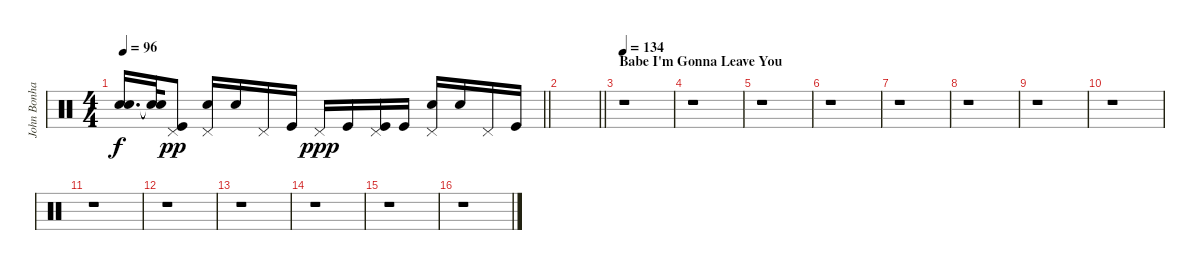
\track ("John Bonham - Drums" "John Bonha") {instrument percussion}
\staff {score}
\articulation defaults
\ts (4 4)
\tempo 96
\clef neutral
\barLineRight lightlight
\ks c
("Snare (hit)"{t} "Snare (hit)"{t}).16{d dy f} ("Snare (hit)"{t} "Snare (hit)"{t}).32 ("Pedal Hi-Hat (hit)" "Kick (hit)").8{dy pp} ("Pedal Hi-Hat (hit)" "Snare (hit) 2").16 "Snare (hit) 2".16 "Pedal Hi-Hat (hit)".16 "Kick (hit)".16 "Pedal Hi-Hat (hit)".16{dy ppp} "Kick (hit)".16 ("Pedal Hi-Hat (hit)" "Kick (hit)").16 "Kick (hit)".16 ("Pedal Hi-Hat (hit)" "Snare (hit) 2").16 "Snare (hit) 2".16 "Pedal Hi-Hat (hit)".16 "Kick (hit)".16 |
\barLineRight lightlight
|
\section ("" "Babe I'm Gonna Leave You")
\tempo 134
r.1{volume 13} |
r.1 |
r.1 |
r.1 |
r.1 |
r.1 |
r.1 |
r.1 |
r.1 |
r.1 |
r.1 |
r.1 |
r.1 |
r.1
